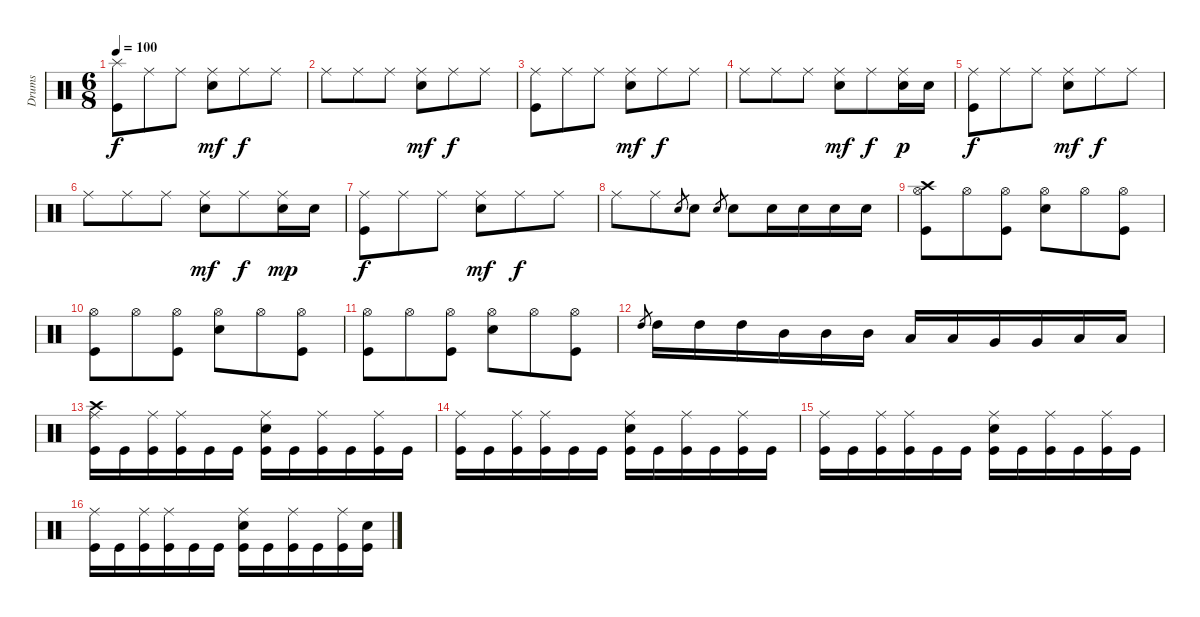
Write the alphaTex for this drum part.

\track ("Drums" "Drums") {instrument percussion}
\staff {score}
\articulation defaults
\ts (6 8)
\tempo 100
\clef neutral
\ks c
("Splash (hit)" "Kick (hit)").8{dy f} "Ride (middle)".8 "Ride (middle)".8 ("Ride (middle)" "Electric Snare (hit)").8{dy mf} "Ride (middle)".8{dy f} "Ride (middle)".8 |
"Ride (middle)".8 "Ride (middle)".8 "Ride (middle)".8 ("Ride (middle)" "Electric Snare (hit)").8{dy mf} "Ride (middle)".8{dy f} "Ride (middle)".8 |
("Ride (middle)" "Kick (hit)").8 "Ride (middle)".8 "Ride (middle)".8 ("Ride (middle)" "Electric Snare (hit)").8{dy mf} "Ride (middle)".8{dy f} "Ride (middle)".8 |
"Ride (middle)".8 "Ride (middle)".8 "Ride (middle)".8 ("Ride (middle)" "Electric Snare (hit)").8{dy mf} "Ride (middle)".8{dy f} ("Ride (middle)" "Electric Snare (hit)").16{dy p} "Electric Snare (hit)".16 |
("Ride (middle)" "Kick (hit)").8{dy f} "Ride (middle)".8 "Ride (middle)".8 ("Ride (middle)" "Electric Snare (hit)").8{dy mf} "Ride (middle)".8{dy f} "Ride (middle)".8 |
"Ride (middle)".8 "Ride (middle)".8 "Ride (middle)".8 ("Ride (middle)" "Electric Snare (hit)").8{dy mf} "Ride (middle)".8{dy f} ("Ride (middle)" "Electric Snare (hit)").16{dy mp} "Electric Snare (hit)".16 |
("Ride (middle)" "Kick (hit)").8{dy f} "Ride (middle)".8 "Ride (middle)".8 ("Ride (middle)" "Electric Snare (hit)").8{dy mf} "Ride (middle)".8{dy f} "Ride (middle)".8 |
"Ride (middle)".8 "Ride (middle)".8 "Electric Snare (hit)".8{gr} "Electric Snare (hit)".8 "Electric Snare (hit)".8{gr} "Electric Snare (hit)".8 "Electric Snare (hit)".16 "Electric Snare (hit)".16 "Electric Snare (hit)".16 "Electric Snare (hit)".16 |
("Crash high (hit)" "Hi-Hat (open)" "Kick (hit)").8 "Hi-Hat (open)".8 ("Hi-Hat (open)" "Kick (hit)").8 ("Hi-Hat (open)" "Electric Snare (hit)").8 "Hi-Hat (open)".8 ("Hi-Hat (open)" "Kick (hit)").8 |
("Hi-Hat (open)" "Kick (hit)").8 "Hi-Hat (open)".8 ("Hi-Hat (open)" "Kick (hit)").8 ("Hi-Hat (open)" "Electric Snare (hit)").8 "Hi-Hat (open)".8 ("Hi-Hat (open)" "Kick (hit)").8 |
("Hi-Hat (open)" "Kick (hit)").8 "Hi-Hat (open)".8 ("Hi-Hat (open)" "Kick (hit)").8 ("Hi-Hat (open)" "Electric Snare (hit)").8 "Hi-Hat (open)".8 ("Hi-Hat (open)" "Kick (hit)").8 |
"High Tom (hit)".8{gr} "High Tom (hit)".16 "High Tom (hit)".16 "High Tom (hit)".16 "Mid Tom (hit)".16 "Mid Tom (hit)".16 "Mid Tom (hit)".16 "Low Tom (hit)".16 "Low Tom (hit)".16 "Very Low Tom (hit)".16 "Very Low Tom (hit)".16 "Low Floor Tom (hit)".16 "Low Floor Tom (hit)".16 |
("Crash high (hit)" "Ride (middle)" "Kick (hit)").16 "Kick (hit)".16 ("Ride (middle)" "Kick (hit)").16 ("Ride (middle)" "Kick (hit)").16 "Kick (hit)".16 "Kick (hit)".16 ("Ride (middle)" "Electric Snare (hit)" "Kick (hit)").16 "Kick (hit)".16 ("Ride (middle)" "Kick (hit)").16 "Kick (hit)".16 ("Ride (middle)" "Kick (hit)").16 "Kick (hit)".16 |
("Ride (middle)" "Kick (hit)").16 "Kick (hit)".16 ("Ride (middle)" "Kick (hit)").16 ("Ride (middle)" "Kick (hit)").16 "Kick (hit)".16 "Kick (hit)".16 ("Ride (middle)" "Electric Snare (hit)" "Kick (hit)").16 "Kick (hit)".16 ("Ride (middle)" "Kick (hit)").16 "Kick (hit)".16 ("Ride (middle)" "Kick (hit)").16 "Kick (hit)".16 |
("Ride (middle)" "Kick (hit)").16 "Kick (hit)".16 ("Ride (middle)" "Kick (hit)").16 ("Ride (middle)" "Kick (hit)").16 "Kick (hit)".16 "Kick (hit)".16 ("Ride (middle)" "Electric Snare (hit)" "Kick (hit)").16 "Kick (hit)".16 ("Ride (middle)" "Kick (hit)").16 "Kick (hit)".16 ("Ride (middle)" "Kick (hit)").16 "Kick (hit)".16 |
("Ride (middle)" "Kick (hit)").16 "Kick (hit)".16 ("Ride (middle)" "Kick (hit)").16 ("Ride (middle)" "Kick (hit)").16 "Kick (hit)".16 "Kick (hit)".16 ("Ride (middle)" "Electric Snare (hit)" "Kick (hit)").16 "Kick (hit)".16 ("Ride (middle)" "Kick (hit)").16 "Kick (hit)".16 ("Ride (middle)" "Kick (hit)").16 ("Electric Snare (hit)" "Kick (hit)").16
